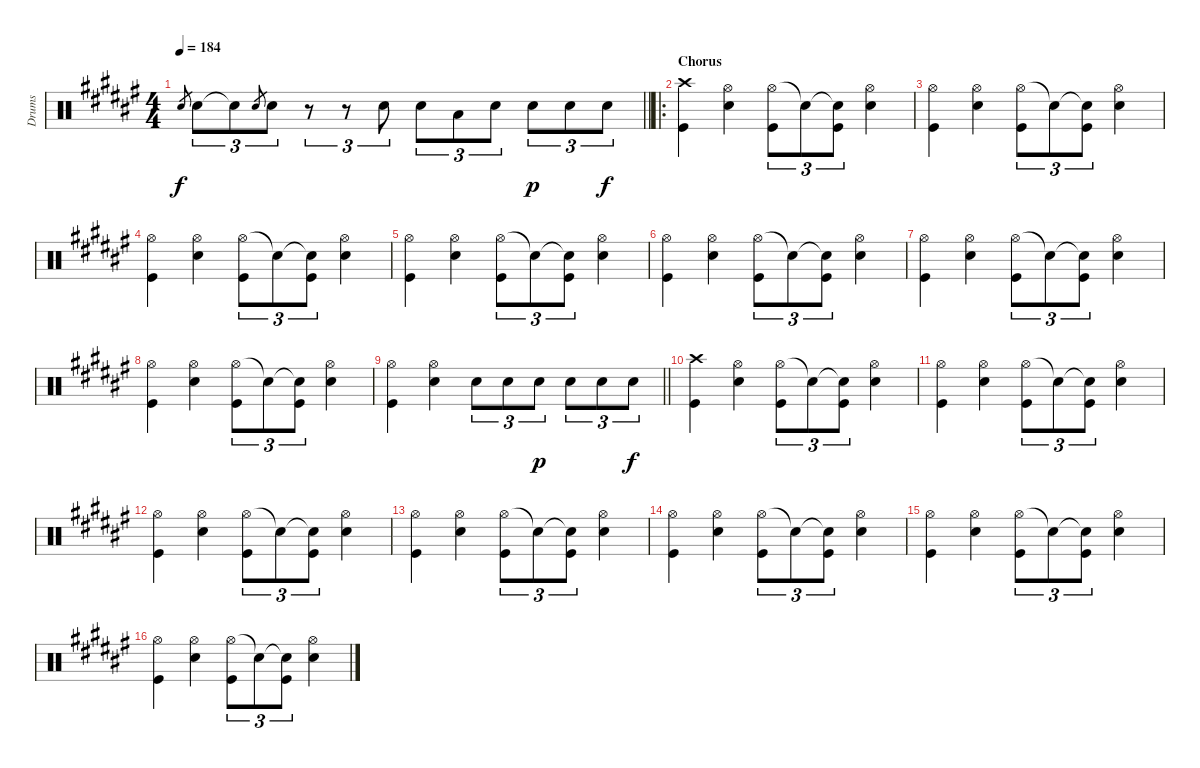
\track ("Drums" "Drums") {instrument percussion}
\staff {score}
\articulation defaults
\ts (4 4)
\tempo 184
\clef neutral
\barLineRight lightlight
\ks f# "Electric Snare (hit)".8{gr dy f} "Electric Snare (hit)".8{tu (3 2)} "Snare (hit)"{t}.8{tu (3 2)} "Electric Snare (hit)".8{gr} "Electric Snare (hit)".8{tu (3 2)}
r.8{tu (3 2)} r.8{tu (3 2)} "Electric Snare (hit)".8{tu (3 2)} "Electric Snare (hit)".8{tu (3 2)} "Low Tom (hit)".8{tu (3 2)} "Electric Snare (hit)".8{tu (3 2)} "Electric Snare (hit)".8{tu (3 2) dy p} "Electric Snare (hit)".8{tu (3 2)} "Electric Snare (hit)".8{tu (3 2) dy f} |
\ro
\section ("" "Chorus")
("Crash high (hit)" "Kick (hit)").4 ("Hi-Hat (open)" "Electric Snare (hit)").4 ("Hi-Hat (open)" "Kick (hit)").8{tu (3 2)} "Snare (hit)"{t}.8{tu (3 2)} ("Snare (hit)"{t} "Kick (hit)").8{tu (3 2)} ("Hi-Hat (open)" "Electric Snare (hit)").4 |
("Hi-Hat (open)" "Kick (hit)").4 ("Hi-Hat (open)" "Electric Snare (hit)").4 ("Hi-Hat (open)" "Kick (hit)").8{tu (3 2)} "Snare (hit)"{t}.8{tu (3 2)} ("Snare (hit)"{t} "Kick (hit)").8{tu (3 2)} ("Hi-Hat (open)" "Electric Snare (hit)").4 |
("Hi-Hat (open)" "Kick (hit)").4 ("Hi-Hat (open)" "Electric Snare (hit)").4 ("Hi-Hat (open)" "Kick (hit)").8{tu (3 2)} "Snare (hit)"{t}.8{tu (3 2)} ("Snare (hit)"{t} "Kick (hit)").8{tu (3 2)} ("Hi-Hat (open)" "Electric Snare (hit)").4 |
("Hi-Hat (open)" "Kick (hit)").4 ("Hi-Hat (open)" "Electric Snare (hit)").4 ("Hi-Hat (open)" "Kick (hit)").8{tu (3 2)} "Snare (hit)"{t}.8{tu (3 2)} ("Snare (hit)"{t} "Kick (hit)").8{tu (3 2)} ("Hi-Hat (open)" "Electric Snare (hit)").4 |
("Hi-Hat (open)" "Kick (hit)").4 ("Hi-Hat (open)" "Electric Snare (hit)").4 ("Hi-Hat (open)" "Kick (hit)").8{tu (3 2)} "Snare (hit)"{t}.8{tu (3 2)} ("Snare (hit)"{t} "Kick (hit)").8{tu (3 2)} ("Hi-Hat (open)" "Electric Snare (hit)").4 |
("Hi-Hat (open)" "Kick (hit)").4 ("Hi-Hat (open)" "Electric Snare (hit)").4 ("Hi-Hat (open)" "Kick (hit)").8{tu (3 2)} "Snare (hit)"{t}.8{tu (3 2)} ("Snare (hit)"{t} "Kick (hit)").8{tu (3 2)} ("Hi-Hat (open)" "Electric Snare (hit)").4 |
("Hi-Hat (open)" "Kick (hit)").4 ("Hi-Hat (open)" "Electric Snare (hit)").4 ("Hi-Hat (open)" "Kick (hit)").8{tu (3 2)} "Snare (hit)"{t}.8{tu (3 2)} ("Snare (hit)"{t} "Kick (hit)").8{tu (3 2)} ("Hi-Hat (open)" "Electric Snare (hit)").4 |
\barLineRight lightlight
("Hi-Hat (open)" "Kick (hit)").4 ("Hi-Hat (open)" "Electric Snare (hit)").4 "Electric Snare (hit)".8{tu (3 2)} "Electric Snare (hit)".8{tu (3 2)} "Electric Snare (hit)".8{tu (3 2) dy p} "Electric Snare (hit)".8{tu (3 2)} "Electric Snare (hit)".8{tu (3 2)} "Electric Snare (hit)".8{tu (3 2) dy f} |
("Crash high (hit)" "Kick (hit)").4 ("Hi-Hat (open)" "Electric Snare (hit)").4 ("Hi-Hat (open)" "Kick (hit)").8{tu (3 2)} "Snare (hit)"{t}.8{tu (3 2)} ("Snare (hit)"{t} "Kick (hit)").8{tu (3 2)} ("Hi-Hat (open)" "Electric Snare (hit)").4 |
("Hi-Hat (open)" "Kick (hit)").4 ("Hi-Hat (open)" "Electric Snare (hit)").4 ("Hi-Hat (open)" "Kick (hit)").8{tu (3 2)} "Snare (hit)"{t}.8{tu (3 2)} ("Snare (hit)"{t} "Kick (hit)").8{tu (3 2)} ("Hi-Hat (open)" "Electric Snare (hit)").4 |
("Hi-Hat (open)" "Kick (hit)").4 ("Hi-Hat (open)" "Electric Snare (hit)").4 ("Hi-Hat (open)" "Kick (hit)").8{tu (3 2)} "Snare (hit)"{t}.8{tu (3 2)} ("Snare (hit)"{t} "Kick (hit)").8{tu (3 2)} ("Hi-Hat (open)" "Electric Snare (hit)").4 |
("Hi-Hat (open)" "Kick (hit)").4 ("Hi-Hat (open)" "Electric Snare (hit)").4 ("Hi-Hat (open)" "Kick (hit)").8{tu (3 2)} "Snare (hit)"{t}.8{tu (3 2)} ("Snare (hit)"{t} "Kick (hit)").8{tu (3 2)} ("Hi-Hat (open)" "Electric Snare (hit)").4 |
("Hi-Hat (open)" "Kick (hit)").4 ("Hi-Hat (open)" "Electric Snare (hit)").4 ("Hi-Hat (open)" "Kick (hit)").8{tu (3 2)} "Snare (hit)"{t}.8{tu (3 2)} ("Snare (hit)"{t} "Kick (hit)").8{tu (3 2)} ("Hi-Hat (open)" "Electric Snare (hit)").4 |
("Hi-Hat (open)" "Kick (hit)").4 ("Hi-Hat (open)" "Electric Snare (hit)").4 ("Hi-Hat (open)" "Kick (hit)").8{tu (3 2)} "Snare (hit)"{t}.8{tu (3 2)} ("Snare (hit)"{t} "Kick (hit)").8{tu (3 2)} ("Hi-Hat (open)" "Electric Snare (hit)").4 |
("Hi-Hat (open)" "Kick (hit)").4 ("Hi-Hat (open)" "Electric Snare (hit)").4 ("Hi-Hat (open)" "Kick (hit)").8{tu (3 2)} "Snare (hit)"{t}.8{tu (3 2)} ("Snare (hit)"{t} "Kick (hit)").8{tu (3 2)} ("Hi-Hat (open)" "Electric Snare (hit)").4
